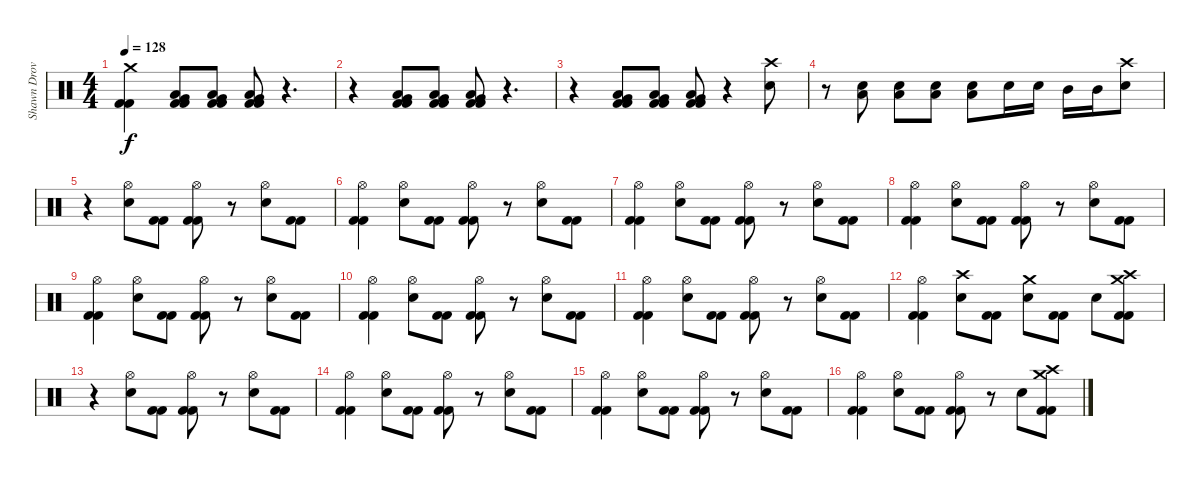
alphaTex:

\track ("Shawn Drover" "Shawn Drov") {instrument percussion}
\staff {score}
\articulation defaults
\ts (4 4)
\tempo 128
\clef neutral
\ks c
("Crash medium (hit)" "Kick (hit) 2" "Kick (hit) 2").4{dy f} ("Very Low Tom (hit)" "Low Tom (hit)" "Kick (hit) 2" "Kick (hit) 2").8 ("Very Low Tom (hit)" "Low Tom (hit)" "Kick (hit) 2" "Kick (hit) 2").8 ("Very Low Tom (hit)" "Low Tom (hit)" "Kick (hit) 2" "Kick (hit) 2").8 r.4{d} |
r.4 ("Very Low Tom (hit)" "Low Tom (hit)" "Kick (hit) 2" "Kick (hit) 2").8 ("Very Low Tom (hit)" "Low Tom (hit)" "Kick (hit) 2" "Kick (hit) 2").8 ("Very Low Tom (hit)" "Low Tom (hit)" "Kick (hit) 2" "Kick (hit) 2").8 r.4{d} |
r.4 ("Very Low Tom (hit)" "Low Tom (hit)" "Kick (hit) 2" "Kick (hit) 2").8 ("Very Low Tom (hit)" "Low Tom (hit)" "Kick (hit) 2" "Kick (hit) 2").8 ("Very Low Tom (hit)" "Low Tom (hit)" "Kick (hit) 2" "Kick (hit) 2").8 r.4 ("Crash high (hit)" "Electric Snare (hit)").8 |
r.8 ("Electric Snare (hit)" "Low Tom (hit)").8 ("Electric Snare (hit)" "Low Tom (hit)").8 ("Electric Snare (hit)" "Low Tom (hit)").8 ("Electric Snare (hit)" "Low Tom (hit)").8 "Electric Snare (hit)".16 "Electric Snare (hit)".16 "Mid Tom (hit)".16 "Mid Tom (hit)".16 ("Crash high (hit)" "Electric Snare (hit)").8 |
r.4 ("Hi-Hat (open)" "Electric Snare (hit)").8 ("Kick (hit) 2" "Kick (hit) 2").8 ("Hi-Hat (open)" "Kick (hit) 2" "Kick (hit) 2").8 r.8 ("Hi-Hat (open)" "Electric Snare (hit)").8 ("Kick (hit) 2" "Kick (hit) 2").8 |
("Hi-Hat (open)" "Kick (hit) 2" "Kick (hit) 2").4 ("Hi-Hat (open)" "Electric Snare (hit)").8 ("Kick (hit) 2" "Kick (hit) 2").8 ("Hi-Hat (open)" "Kick (hit) 2" "Kick (hit) 2").8 r.8 ("Hi-Hat (open)" "Electric Snare (hit)").8 ("Kick (hit) 2" "Kick (hit) 2").8 |
("Hi-Hat (open)" "Kick (hit) 2" "Kick (hit) 2").4 ("Hi-Hat (open)" "Electric Snare (hit)").8 ("Kick (hit) 2" "Kick (hit) 2").8 ("Hi-Hat (open)" "Kick (hit) 2" "Kick (hit) 2").8 r.8 ("Hi-Hat (open)" "Electric Snare (hit)").8 ("Kick (hit) 2" "Kick (hit) 2").8 |
("Hi-Hat (open)" "Kick (hit) 2" "Kick (hit) 2").4 ("Hi-Hat (open)" "Electric Snare (hit)").8 ("Kick (hit) 2" "Kick (hit) 2").8 ("Hi-Hat (open)" "Kick (hit) 2" "Kick (hit) 2").8 r.8 ("Hi-Hat (open)" "Electric Snare (hit)").8 ("Kick (hit) 2" "Kick (hit) 2").8 |
("Hi-Hat (open)" "Kick (hit) 2" "Kick (hit) 2").4 ("Hi-Hat (open)" "Electric Snare (hit)").8 ("Kick (hit) 2" "Kick (hit) 2").8 ("Hi-Hat (open)" "Kick (hit) 2" "Kick (hit) 2").8 r.8 ("Hi-Hat (open)" "Electric Snare (hit)").8 ("Kick (hit) 2" "Kick (hit) 2").8 |
("Hi-Hat (open)" "Kick (hit) 2" "Kick (hit) 2").4 ("Hi-Hat (open)" "Electric Snare (hit)").8 ("Kick (hit) 2" "Kick (hit) 2").8 ("Hi-Hat (open)" "Kick (hit) 2" "Kick (hit) 2").8 r.8 ("Hi-Hat (open)" "Electric Snare (hit)").8 ("Kick (hit) 2" "Kick (hit) 2").8 |
("Hi-Hat (open)" "Kick (hit) 2" "Kick (hit) 2").4 ("Hi-Hat (open)" "Electric Snare (hit)").8 ("Kick (hit) 2" "Kick (hit) 2").8 ("Hi-Hat (open)" "Kick (hit) 2" "Kick (hit) 2").8 r.8 ("Hi-Hat (open)" "Electric Snare (hit)").8 ("Kick (hit) 2" "Kick (hit) 2").8 |
("Hi-Hat (open)" "Kick (hit) 2" "Kick (hit) 2").4 ("Crash high (hit)" "Electric Snare (hit)").8 ("Kick (hit) 2" "Kick (hit) 2").8 ("Crash medium (hit)" "Electric Snare (hit)").8 ("Kick (hit) 2" "Kick (hit) 2").8 "Electric Snare (hit)".8 ("Crash high (hit)" "Crash medium (hit)" "Kick (hit) 2" "Kick (hit) 2").8 |
r.4 ("Hi-Hat (open)" "Electric Snare (hit)").8 ("Kick (hit) 2" "Kick (hit) 2").8 ("Hi-Hat (open)" "Kick (hit) 2" "Kick (hit) 2").8 r.8 ("Hi-Hat (open)" "Electric Snare (hit)").8 ("Kick (hit) 2" "Kick (hit) 2").8 |
("Hi-Hat (open)" "Kick (hit) 2" "Kick (hit) 2").4 ("Hi-Hat (open)" "Electric Snare (hit)").8 ("Kick (hit) 2" "Kick (hit) 2").8 ("Hi-Hat (open)" "Kick (hit) 2" "Kick (hit) 2").8 r.8 ("Hi-Hat (open)" "Electric Snare (hit)").8 ("Kick (hit) 2" "Kick (hit) 2").8 |
("Hi-Hat (open)" "Kick (hit) 2" "Kick (hit) 2").4 ("Hi-Hat (open)" "Electric Snare (hit)").8 ("Kick (hit) 2" "Kick (hit) 2").8 ("Hi-Hat (open)" "Kick (hit) 2" "Kick (hit) 2").8 r.8 ("Hi-Hat (open)" "Electric Snare (hit)").8 ("Kick (hit) 2" "Kick (hit) 2").8 |
("Hi-Hat (open)" "Kick (hit) 2" "Kick (hit) 2").4 ("Hi-Hat (open)" "Electric Snare (hit)").8 ("Kick (hit) 2" "Kick (hit) 2").8 ("Hi-Hat (open)" "Kick (hit) 2" "Kick (hit) 2").8 r.8 "Electric Snare (hit)".8 ("Crash medium (hit)" "Crash high (hit)" "Kick (hit) 2" "Kick (hit) 2").8
